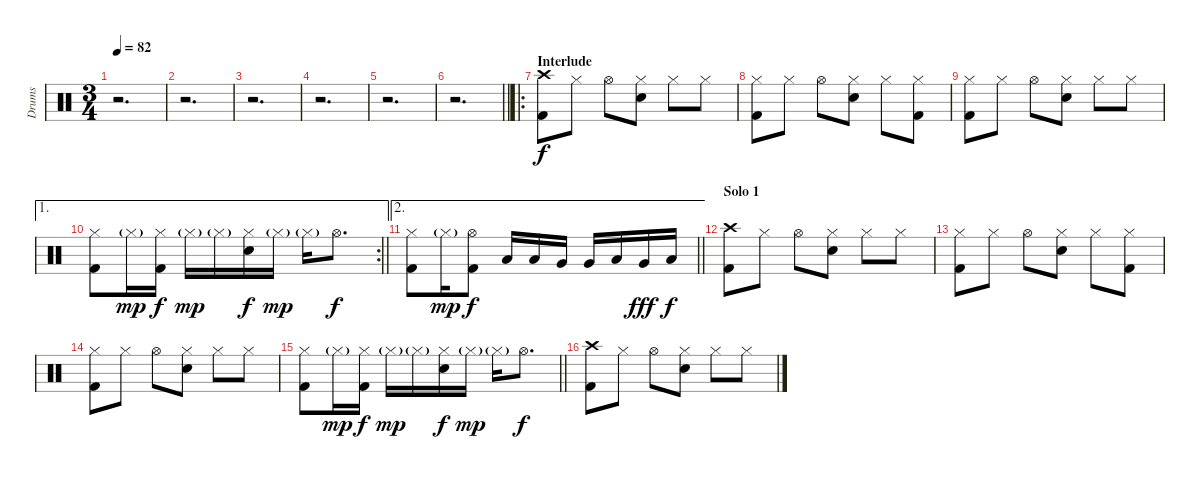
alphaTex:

\track ("Drums" "Drums") {instrument percussion}
\staff {score}
\articulation defaults
\ts (3 4)
\tempo 82
\clef neutral
\ks c
r.2{d dy ff} |
r.2{d} |
r.2{d} |
r.2{d} |
r.2{d} |
\barLineRight lightlight
r.2{d} |
\ro
\section ("" "Interlude")
("Crash high (hit)" "Kick (hit) 2").8{dy f} "Hi-Hat (closed)".8 "Hi-Hat (open)".8 ("Hi-Hat (closed)" "Electric Snare (hit)").8 "Hi-Hat (closed)".8 "Hi-Hat (closed)".8 |
("Hi-Hat (closed)" "Kick (hit) 2").8 "Hi-Hat (closed)".8 "Hi-Hat (open)".8 ("Hi-Hat (closed)" "Electric Snare (hit)").8 "Hi-Hat (closed)".8 ("Hi-Hat (closed)" "Kick (hit) 2").8 |
("Hi-Hat (closed)" "Kick (hit) 2").8 "Hi-Hat (closed)".8 "Hi-Hat (open)".8 ("Hi-Hat (closed)" "Electric Snare (hit)").8 "Hi-Hat (closed)".8 "Hi-Hat (closed)".8 |
\ae 1
\rc 2
\barLineRight lightlight
("Hi-Hat (closed)" "Kick (hit) 2").8 "Hi-Hat (closed)"{g}.16{dy mp} ("Hi-Hat (closed)" "Kick (hit) 2").16{dy f} "Hi-Hat (closed)"{g}.16{dy mp} "Hi-Hat (closed)"{g}.16 ("Hi-Hat (closed)" "Electric Snare (hit)").16{dy f} "Hi-Hat (closed)"{g}.16{dy mp} "Hi-Hat (closed)"{g}.16 "Hi-Hat (open)".8{d dy f} |
\ae 2
\barLineRight lightlight
("Hi-Hat (closed)" "Kick (hit) 2").8 "Hi-Hat (closed)"{g}.16{dy mp} ("Hi-Hat (open)" "Kick (hit) 2").8{dy f} "Low Tom (hit)".16 "Low Tom (hit)".16 "Very Low Tom (hit)".16 "Very Low Tom (hit)".16 "Low Floor Tom (hit)".16 "Very Low Tom (hit)".16{dy fff} "Low Floor Tom (hit)".16{dy f} |
\section ("" "Solo 1")
("Crash high (hit)" "Kick (hit) 2").8 "Hi-Hat (closed)".8 "Hi-Hat (open)".8 ("Hi-Hat (closed)" "Electric Snare (hit)").8 "Hi-Hat (closed)".8 "Hi-Hat (closed)".8 |
("Hi-Hat (closed)" "Kick (hit) 2").8 "Hi-Hat (closed)".8 "Hi-Hat (open)".8 ("Hi-Hat (closed)" "Electric Snare (hit)").8 "Hi-Hat (closed)".8 ("Hi-Hat (closed)" "Kick (hit) 2").8 |
("Hi-Hat (closed)" "Kick (hit) 2").8 "Hi-Hat (closed)".8 "Hi-Hat (open)".8 ("Hi-Hat (closed)" "Electric Snare (hit)").8 "Hi-Hat (closed)".8 "Hi-Hat (closed)".8 |
\barLineRight lightlight
("Hi-Hat (closed)" "Kick (hit) 2").8 "Hi-Hat (closed)"{g}.16{dy mp} ("Hi-Hat (closed)" "Kick (hit) 2").16{dy f} "Hi-Hat (closed)"{g}.16{dy mp} "Hi-Hat (closed)"{g}.16 ("Hi-Hat (closed)" "Electric Snare (hit)").16{dy f} "Hi-Hat (closed)"{g}.16{dy mp} "Hi-Hat (closed)"{g}.16 "Hi-Hat (open)".8{d dy f} |
("Crash high (hit)" "Kick (hit) 2").8 "Hi-Hat (closed)".8 "Hi-Hat (open)".8 ("Hi-Hat (closed)" "Electric Snare (hit)").8 "Hi-Hat (closed)".8 "Hi-Hat (closed)".8
